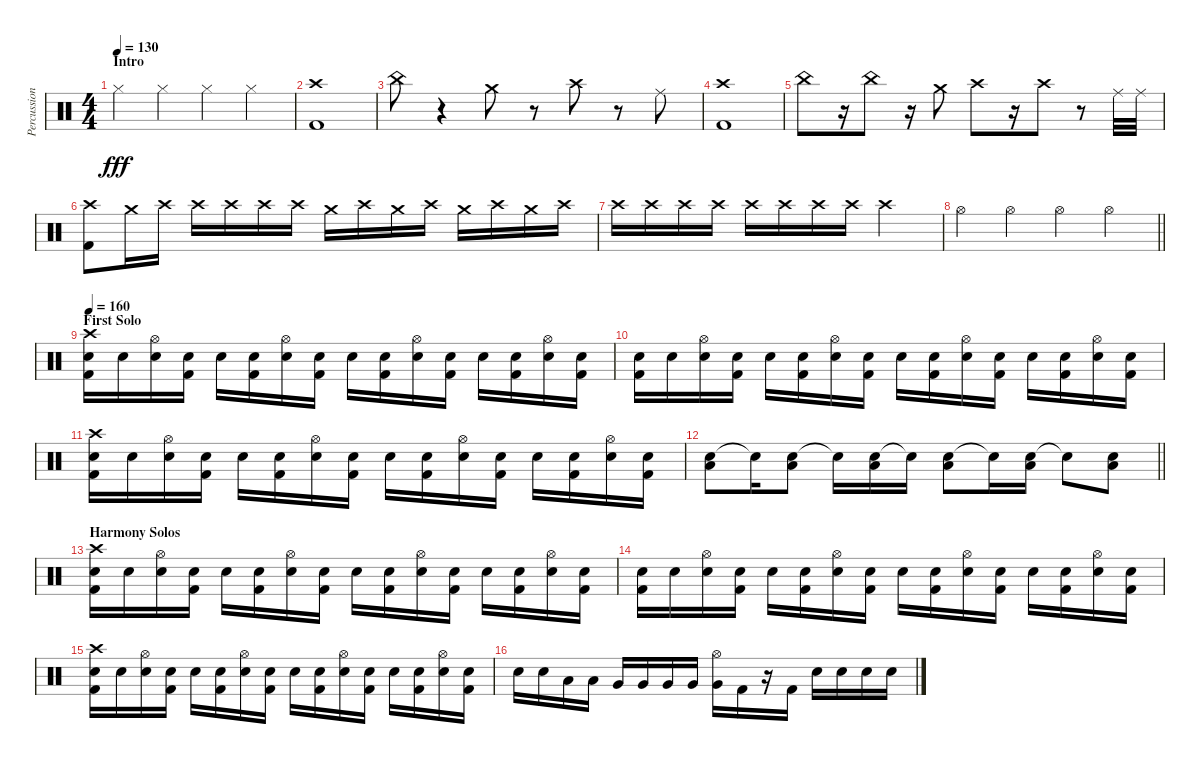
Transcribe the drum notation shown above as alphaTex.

\track ("Percussion" "Percussion") {instrument percussion}
\staff {score}
\articulation defaults
\ts (4 4)
\section ("" "Intro")
\tempo 130
\clef neutral
\ks c "Hi-Hat (closed)".4{dy fff} "Hi-Hat (closed)".4 "Hi-Hat (closed)".4 "Hi-Hat (closed)".4
|
("Kick (hit) 2" "Crash high (hit)").1 |
"China (hit)".8 r.4 "Crash medium (hit)".8 r.8 "Crash high (hit)".8 r.8 "Ride (middle)".8 |
("Kick (hit) 2" "Crash high (hit)").1 |
"China (hit)".8 r.16 "China (hit)".8 r.16 "Crash medium (hit)".8 "Crash high (hit)".8 r.16 "Crash high (hit)".8 r.8 "Ride (middle)".32 "Ride (middle)".32 |
("Kick (hit) 2" "Crash high (hit)").8 "Crash medium (hit)".16 "Crash high (hit)".16 "Crash high (hit)".16 "Crash high (hit)".16 "Crash high (hit)".16 "Crash high (hit)".16 "Crash medium (hit)".16 "Crash high (hit)".16 "Crash medium (hit)".16 "Crash high (hit)".16 "Crash medium (hit)".16 "Crash high (hit)".16 "Crash medium (hit)".16 "Crash high (hit)".16 |
"Crash high (hit)".16 "Crash high (hit)".16 "Crash high (hit)".16 "Crash high (hit)".16 "Crash high (hit)".16 "Crash high (hit)".16 "Crash high (hit)".16 "Crash high (hit)".16 "Crash high (hit)".2 |
\barLineRight lightlight "Hi-Hat (open)".4 "Hi-Hat (open)".4 "Hi-Hat (open)".4 "Hi-Hat (open)".4
|
\section ("" "First Solo")
\tempo 160
("Snare (hit) 2" "Crash high (hit)" "Kick (hit) 2").16 "Snare (hit) 2".16 ("Snare (hit) 2" "Hi-Hat (open)").16 ("Snare (hit) 2" "Kick (hit) 2").16 "Snare (hit) 2".16 ("Snare (hit) 2" "Kick (hit) 2").16 ("Snare (hit) 2" "Hi-Hat (open)").16 ("Snare (hit) 2" "Kick (hit) 2").16 "Snare (hit) 2".16 ("Snare (hit) 2" "Kick (hit) 2").16 ("Snare (hit) 2" "Hi-Hat (open)").16 ("Snare (hit) 2" "Kick (hit) 2").16 "Snare (hit) 2".16 ("Snare (hit) 2" "Kick (hit) 2").16 ("Snare (hit) 2" "Hi-Hat (open)").16 ("Snare (hit) 2" "Kick (hit) 2").16 |
("Snare (hit) 2" "Kick (hit) 2").16 "Snare (hit) 2".16 ("Snare (hit) 2" "Hi-Hat (open)").16 ("Snare (hit) 2" "Kick (hit) 2").16 "Snare (hit) 2".16 ("Snare (hit) 2" "Kick (hit) 2").16 ("Snare (hit) 2" "Hi-Hat (open)").16 ("Snare (hit) 2" "Kick (hit) 2").16 "Snare (hit) 2".16 ("Snare (hit) 2" "Kick (hit) 2").16 ("Snare (hit) 2" "Hi-Hat (open)").16 ("Snare (hit) 2" "Kick (hit) 2").16 "Snare (hit) 2".16 ("Snare (hit) 2" "Kick (hit) 2").16 ("Snare (hit) 2" "Hi-Hat (open)").16 ("Snare (hit) 2" "Kick (hit) 2").16 |
("Snare (hit) 2" "Crash high (hit)" "Kick (hit) 2").16 "Snare (hit) 2".16 ("Snare (hit) 2" "Hi-Hat (open)").16 ("Snare (hit) 2" "Kick (hit) 2").16 "Snare (hit) 2".16 ("Snare (hit) 2" "Kick (hit) 2").16 ("Snare (hit) 2" "Hi-Hat (open)").16 ("Snare (hit) 2" "Kick (hit) 2").16 "Snare (hit) 2".16 ("Snare (hit) 2" "Kick (hit) 2").16 ("Snare (hit) 2" "Hi-Hat (open)").16 ("Snare (hit) 2" "Kick (hit) 2").16 "Snare (hit) 2".16 ("Snare (hit) 2" "Kick (hit) 2").16 ("Snare (hit) 2" "Hi-Hat (open)").16 ("Snare (hit) 2" "Kick (hit) 2").16 |
\barLineRight lightlight
("Snare (hit) 2" "Low Tom (hit)").8 "Snare (hit)"{t}.16 ("Snare (hit) 2" "Low Tom (hit)").8 "Snare (hit)"{t}.16 ("Snare (hit) 2" "Low Tom (hit)").16 "Snare (hit)"{t}.16 ("Snare (hit) 2" "Low Tom (hit)").8 "Snare (hit)"{t}.16 ("Snare (hit) 2" "Low Tom (hit)").16 "Snare (hit)"{t}.8 ("Snare (hit) 2" "Low Tom (hit)").8 |
\section ("" "Harmony Solos")
("Snare (hit) 2" "Crash high (hit)" "Kick (hit) 2").16 "Snare (hit) 2".16 ("Snare (hit) 2" "Hi-Hat (open)").16 ("Snare (hit) 2" "Kick (hit) 2").16 "Snare (hit) 2".16 ("Snare (hit) 2" "Kick (hit) 2").16 ("Snare (hit) 2" "Hi-Hat (open)").16 ("Snare (hit) 2" "Kick (hit) 2").16 "Snare (hit) 2".16 ("Snare (hit) 2" "Kick (hit) 2").16 ("Snare (hit) 2" "Hi-Hat (open)").16 ("Snare (hit) 2" "Kick (hit) 2").16 "Snare (hit) 2".16 ("Snare (hit) 2" "Kick (hit) 2").16 ("Snare (hit) 2" "Hi-Hat (open)").16 ("Snare (hit) 2" "Kick (hit) 2").16 |
("Snare (hit) 2" "Kick (hit) 2").16 "Snare (hit) 2".16 ("Snare (hit) 2" "Hi-Hat (open)").16 ("Snare (hit) 2" "Kick (hit) 2").16 "Snare (hit) 2".16 ("Snare (hit) 2" "Kick (hit) 2").16 ("Snare (hit) 2" "Hi-Hat (open)").16 ("Snare (hit) 2" "Kick (hit) 2").16 "Snare (hit) 2".16 ("Snare (hit) 2" "Kick (hit) 2").16 ("Snare (hit) 2" "Hi-Hat (open)").16 ("Snare (hit) 2" "Kick (hit) 2").16 "Snare (hit) 2".16 ("Snare (hit) 2" "Kick (hit) 2").16 ("Snare (hit) 2" "Hi-Hat (open)").16 ("Snare (hit) 2" "Kick (hit) 2").16 |
("Snare (hit) 2" "Crash high (hit)" "Kick (hit) 2").16 "Snare (hit) 2".16 ("Snare (hit) 2" "Hi-Hat (open)").16 ("Snare (hit) 2" "Kick (hit) 2").16 "Snare (hit) 2".16 ("Snare (hit) 2" "Kick (hit) 2").16 ("Snare (hit) 2" "Hi-Hat (open)").16 ("Snare (hit) 2" "Kick (hit) 2").16 "Snare (hit) 2".16 ("Snare (hit) 2" "Kick (hit) 2").16 ("Snare (hit) 2" "Hi-Hat (open)").16 ("Snare (hit) 2" "Kick (hit) 2").16 "Snare (hit) 2".16 ("Snare (hit) 2" "Kick (hit) 2").16 ("Snare (hit) 2" "Hi-Hat (open)").16 ("Snare (hit) 2" "Kick (hit) 2").16 |
"Snare (hit) 2".16 "Snare (hit) 2".16 "Low Tom (hit)".16 "Low Tom (hit)".16 "Very Low Tom (hit)".16 "Very Low Tom (hit)".16 "Very Low Tom (hit)".16 "Very Low Tom (hit)".16 ("Very Low Tom (hit)" "Hi-Hat (open)").16 "Kick (hit) 2".16 r.16 "Kick (hit) 2".16 "Snare (hit) 2".16 "Snare (hit) 2".16 "Snare (hit) 2".16 "Snare (hit) 2".16
